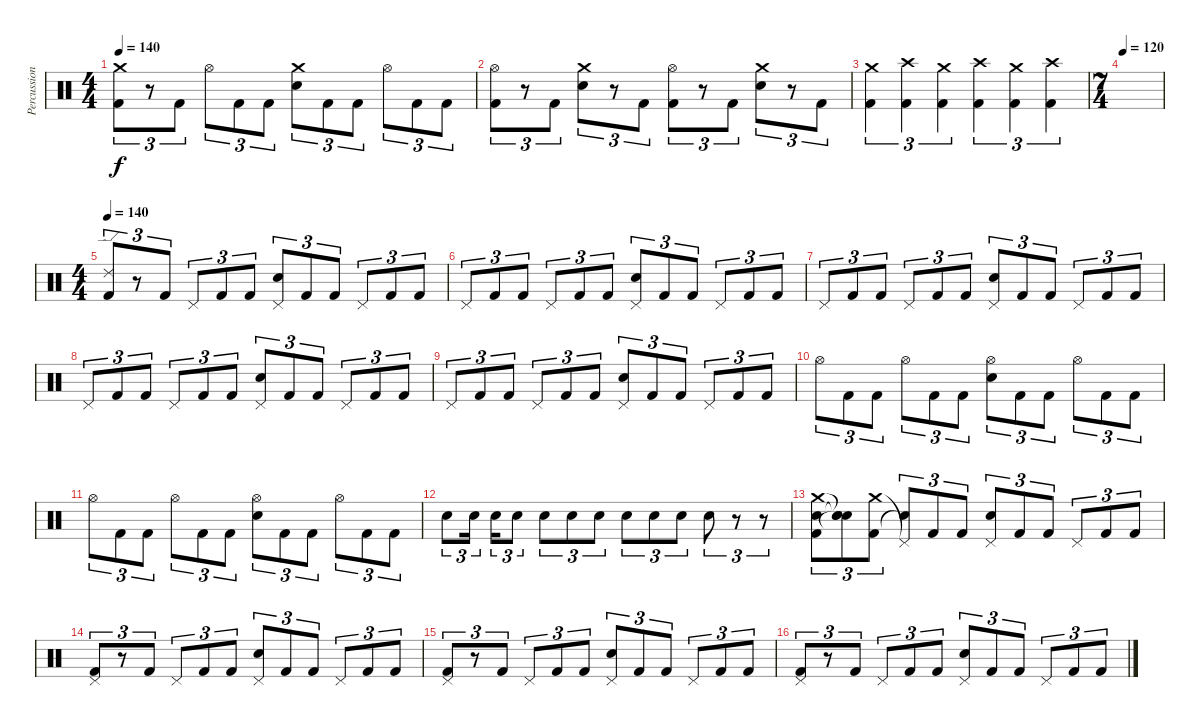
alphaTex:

\track ("Percussion" "Percussion") {instrument percussion}
\staff {score}
\articulation defaults
\ts (4 4)
\tempo 140
\clef neutral
\ks c
("Crash medium (hit)" "Kick (hit) 2").8{tu (3 2) dy f} r.8{tu (3 2)} "Kick (hit) 2".8{tu (3 2)} "Hi-Hat (open)".8{tu (3 2)} "Kick (hit) 2".8{tu (3 2)} "Kick (hit) 2".8{tu (3 2)} ("Crash medium (hit)" "Electric Snare (hit)").8{tu (3 2)} "Kick (hit) 2".8{tu (3 2)} "Kick (hit) 2".8{tu (3 2)} "Hi-Hat (open)".8{tu (3 2)} "Kick (hit) 2".8{tu (3 2)} "Kick (hit) 2".8{tu (3 2)} |
("Hi-Hat (open)" "Kick (hit) 2").8{tu (3 2)} r.8{tu (3 2)} "Kick (hit) 2".8{tu (3 2)} ("Crash medium (hit)" "Electric Snare (hit)").8{tu (3 2)} r.8{tu (3 2)} "Kick (hit) 2".8{tu (3 2)} ("Hi-Hat (open)" "Kick (hit) 2").8{tu (3 2)} r.8{tu (3 2)} "Kick (hit) 2".8{tu (3 2)} ("Crash medium (hit)" "Electric Snare (hit)").8{tu (3 2)} r.8{tu (3 2)} "Kick (hit) 2".8{tu (3 2)} |
("Crash medium (hit)" "Kick (hit) 2").4{tu (3 2)} ("Crash high (hit)" "Kick (hit) 2").4{tu (3 2)} ("Crash medium (hit)" "Kick (hit) 2").4{tu (3 2)} ("Crash high (hit)" "Kick (hit) 2").4{tu (3 2)} ("Crash medium (hit)" "Kick (hit) 2").4{tu (3 2)} ("Crash high (hit)" "Kick (hit) 2").4{tu (3 2)} |
\ts (7 4)
\tempo 120
|
\ts (4 4)
\tempo 140
("Ride (edge) 2" "Kick (hit) 2").8{tu (3 2)} r.8{tu (3 2)} "Kick (hit) 2".8{tu (3 2)} "Pedal Hi-Hat (hit)".8{tu (3 2)} "Kick (hit) 2".8{tu (3 2)} "Kick (hit) 2".8{tu (3 2)} ("Pedal Hi-Hat (hit)" "Electric Snare (hit)").8{tu (3 2)} "Kick (hit) 2".8{tu (3 2)} "Kick (hit) 2".8{tu (3 2)} "Pedal Hi-Hat (hit)".8{tu (3 2)} "Kick (hit) 2".8{tu (3 2)} "Kick (hit) 2".8{tu (3 2)} |
"Pedal Hi-Hat (hit)".8{tu (3 2)} "Kick (hit) 2".8{tu (3 2)} "Kick (hit) 2".8{tu (3 2)} "Pedal Hi-Hat (hit)".8{tu (3 2)} "Kick (hit) 2".8{tu (3 2)} "Kick (hit) 2".8{tu (3 2)} ("Pedal Hi-Hat (hit)" "Electric Snare (hit)").8{tu (3 2)} "Kick (hit) 2".8{tu (3 2)} "Kick (hit) 2".8{tu (3 2)} "Pedal Hi-Hat (hit)".8{tu (3 2)} "Kick (hit) 2".8{tu (3 2)} "Kick (hit) 2".8{tu (3 2)} |
"Pedal Hi-Hat (hit)".8{tu (3 2)} "Kick (hit) 2".8{tu (3 2)} "Kick (hit) 2".8{tu (3 2)} "Pedal Hi-Hat (hit)".8{tu (3 2)} "Kick (hit) 2".8{tu (3 2)} "Kick (hit) 2".8{tu (3 2)} ("Pedal Hi-Hat (hit)" "Electric Snare (hit)").8{tu (3 2)} "Kick (hit) 2".8{tu (3 2)} "Kick (hit) 2".8{tu (3 2)} "Pedal Hi-Hat (hit)".8{tu (3 2)} "Kick (hit) 2".8{tu (3 2)} "Kick (hit) 2".8{tu (3 2)} |
"Pedal Hi-Hat (hit)".8{tu (3 2)} "Kick (hit) 2".8{tu (3 2)} "Kick (hit) 2".8{tu (3 2)} "Pedal Hi-Hat (hit)".8{tu (3 2)} "Kick (hit) 2".8{tu (3 2)} "Kick (hit) 2".8{tu (3 2)} ("Pedal Hi-Hat (hit)" "Electric Snare (hit)").8{tu (3 2)} "Kick (hit) 2".8{tu (3 2)} "Kick (hit) 2".8{tu (3 2)} "Pedal Hi-Hat (hit)".8{tu (3 2)} "Kick (hit) 2".8{tu (3 2)} "Kick (hit) 2".8{tu (3 2)} |
"Pedal Hi-Hat (hit)".8{tu (3 2)} "Kick (hit) 2".8{tu (3 2)} "Kick (hit) 2".8{tu (3 2)} "Pedal Hi-Hat (hit)".8{tu (3 2)} "Kick (hit) 2".8{tu (3 2)} "Kick (hit) 2".8{tu (3 2)} ("Pedal Hi-Hat (hit)" "Electric Snare (hit)").8{tu (3 2)} "Kick (hit) 2".8{tu (3 2)} "Kick (hit) 2".8{tu (3 2)} "Pedal Hi-Hat (hit)".8{tu (3 2)} "Kick (hit) 2".8{tu (3 2)} "Kick (hit) 2".8{tu (3 2)} |
"Hi-Hat (open)".8{tu (3 2)} "Kick (hit) 2".8{tu (3 2)} "Kick (hit) 2".8{tu (3 2)} "Hi-Hat (open)".8{tu (3 2)} "Kick (hit) 2".8{tu (3 2)} "Kick (hit) 2".8{tu (3 2)} ("Hi-Hat (open)" "Electric Snare (hit)").8{tu (3 2)} "Kick (hit) 2".8{tu (3 2)} "Kick (hit) 2".8{tu (3 2)} "Hi-Hat (open)".8{tu (3 2)} "Kick (hit) 2".8{tu (3 2)} "Kick (hit) 2".8{tu (3 2)} |
"Hi-Hat (open)".8{tu (3 2)} "Kick (hit) 2".8{tu (3 2)} "Kick (hit) 2".8{tu (3 2)} "Hi-Hat (open)".8{tu (3 2)} "Kick (hit) 2".8{tu (3 2)} "Kick (hit) 2".8{tu (3 2)} ("Hi-Hat (open)" "Electric Snare (hit)").8{tu (3 2)} "Kick (hit) 2".8{tu (3 2)} "Kick (hit) 2".8{tu (3 2)} "Hi-Hat (open)".8{tu (3 2)} "Kick (hit) 2".8{tu (3 2)} "Kick (hit) 2".8{tu (3 2)} |
"Electric Snare (hit)".8{tu (3 2)} "Electric Snare (hit)".16{tu (3 2) beam splitsecondary} "Electric Snare (hit)".16{tu (3 2)} "Electric Snare (hit)".8{tu (3 2)} "Electric Snare (hit)".8{tu (3 2)} "Electric Snare (hit)".8{tu (3 2)} "Electric Snare (hit)".8{tu (3 2)} "Electric Snare (hit)".8{tu (3 2)} "Electric Snare (hit)".8{tu (3 2)} "Electric Snare (hit)".8{tu (3 2)} "Electric Snare (hit)".8{tu (3 2)} r.8{tu (3 2)} r.8{tu (3 2)} |
("Crash medium (hit)" "Electric Snare (hit)" "Kick (hit) 2").8{tu (3 2)} ("Snare (hit)"{t} "Snare (hit)"{t} "Snare (hit)"{t}).8{tu (3 2)} ("Crash medium (hit)" "Kick (hit) 2").8{tu (3 2)} ("Pedal Hi-Hat (hit)"{t} "Snare (hit)"{t}).8{tu (3 2)} "Kick (hit) 2".8{tu (3 2)} "Kick (hit) 2".8{tu (3 2)} ("Pedal Hi-Hat (hit)" "Electric Snare (hit)").8{tu (3 2)} "Kick (hit) 2".8{tu (3 2)} "Kick (hit) 2".8{tu (3 2)} "Pedal Hi-Hat (hit)".8{tu (3 2)} "Kick (hit) 2".8{tu (3 2)} "Kick (hit) 2".8{tu (3 2)} |
("Pedal Hi-Hat (hit)" "Kick (hit) 2").8{tu (3 2)} r.8{tu (3 2)} "Kick (hit) 2".8{tu (3 2)} "Pedal Hi-Hat (hit)".8{tu (3 2)} "Kick (hit) 2".8{tu (3 2)} "Kick (hit) 2".8{tu (3 2)} ("Pedal Hi-Hat (hit)" "Electric Snare (hit)").8{tu (3 2)} "Kick (hit) 2".8{tu (3 2)} "Kick (hit) 2".8{tu (3 2)} "Pedal Hi-Hat (hit)".8{tu (3 2)} "Kick (hit) 2".8{tu (3 2)} "Kick (hit) 2".8{tu (3 2)} |
("Pedal Hi-Hat (hit)" "Kick (hit) 2").8{tu (3 2)} r.8{tu (3 2)} "Kick (hit) 2".8{tu (3 2)} "Pedal Hi-Hat (hit)".8{tu (3 2)} "Kick (hit) 2".8{tu (3 2)} "Kick (hit) 2".8{tu (3 2)} ("Pedal Hi-Hat (hit)" "Electric Snare (hit)").8{tu (3 2)} "Kick (hit) 2".8{tu (3 2)} "Kick (hit) 2".8{tu (3 2)} "Pedal Hi-Hat (hit)".8{tu (3 2)} "Kick (hit) 2".8{tu (3 2)} "Kick (hit) 2".8{tu (3 2)} |
("Pedal Hi-Hat (hit)" "Kick (hit) 2").8{tu (3 2)} r.8{tu (3 2)} "Kick (hit) 2".8{tu (3 2)} "Pedal Hi-Hat (hit)".8{tu (3 2)} "Kick (hit) 2".8{tu (3 2)} "Kick (hit) 2".8{tu (3 2)} ("Pedal Hi-Hat (hit)" "Electric Snare (hit)").8{tu (3 2)} "Kick (hit) 2".8{tu (3 2)} "Kick (hit) 2".8{tu (3 2)} "Pedal Hi-Hat (hit)".8{tu (3 2)} "Kick (hit) 2".8{tu (3 2)} "Kick (hit) 2".8{tu (3 2)}
